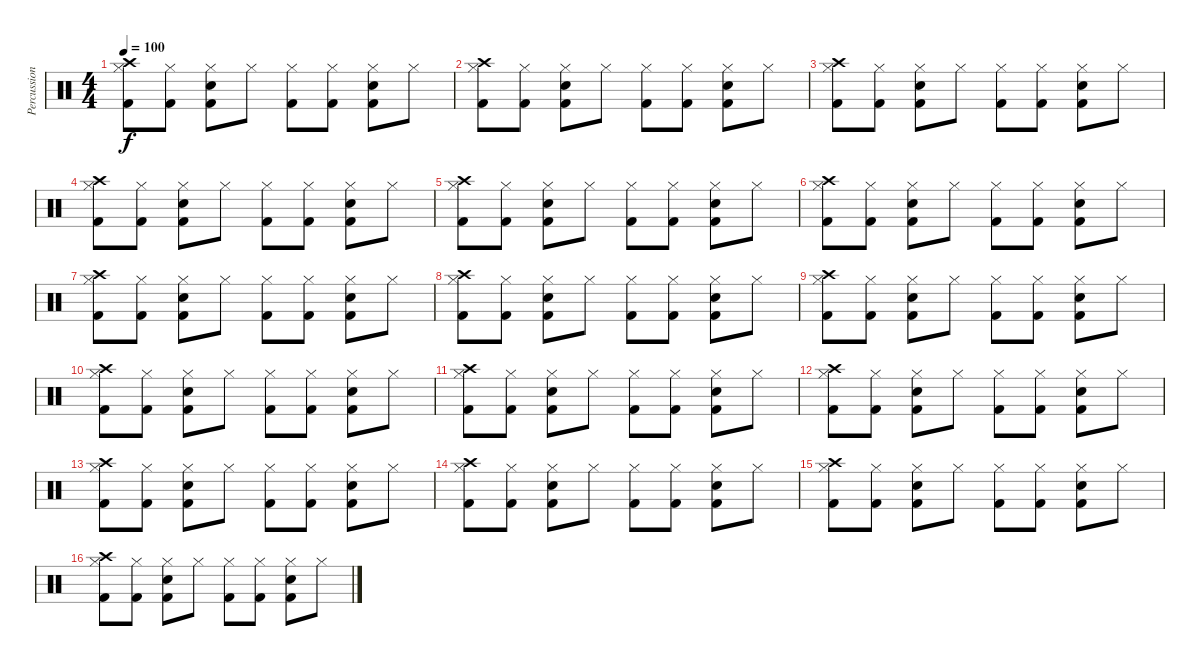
\track ("Percussion" "Percussion") {instrument percussion}
\staff {score}
\articulation defaults
\ts (4 4)
\tempo 100
\clef neutral
\ks c
("Kick (hit) 2" "Hi-Hat (closed)" "Crash high (hit)").8{dy f} ("Kick (hit) 2" "Hi-Hat (closed)").8 ("Kick (hit) 2" "Snare (hit) 2" "Hi-Hat (closed)").8 "Hi-Hat (closed)".8 ("Kick (hit) 2" "Hi-Hat (closed)").8 ("Kick (hit) 2" "Hi-Hat (closed)").8 ("Kick (hit) 2" "Snare (hit) 2" "Hi-Hat (closed)").8 "Hi-Hat (closed)".8 |
("Kick (hit) 2" "Hi-Hat (closed)" "Crash high (hit)").8 ("Kick (hit) 2" "Hi-Hat (closed)").8 ("Kick (hit) 2" "Snare (hit) 2" "Hi-Hat (closed)").8 "Hi-Hat (closed)".8 ("Kick (hit) 2" "Hi-Hat (closed)").8 ("Kick (hit) 2" "Hi-Hat (closed)").8 ("Kick (hit) 2" "Snare (hit) 2" "Hi-Hat (closed)").8 "Hi-Hat (closed)".8 |
("Kick (hit) 2" "Hi-Hat (closed)" "Crash high (hit)").8 ("Kick (hit) 2" "Hi-Hat (closed)").8 ("Kick (hit) 2" "Snare (hit) 2" "Hi-Hat (closed)").8 "Hi-Hat (closed)".8 ("Kick (hit) 2" "Hi-Hat (closed)").8 ("Kick (hit) 2" "Hi-Hat (closed)").8 ("Kick (hit) 2" "Snare (hit) 2" "Hi-Hat (closed)").8 "Hi-Hat (closed)".8 |
("Kick (hit) 2" "Hi-Hat (closed)" "Crash high (hit)").8 ("Kick (hit) 2" "Hi-Hat (closed)").8 ("Kick (hit) 2" "Snare (hit) 2" "Hi-Hat (closed)").8 "Hi-Hat (closed)".8 ("Kick (hit) 2" "Hi-Hat (closed)").8 ("Kick (hit) 2" "Hi-Hat (closed)").8 ("Kick (hit) 2" "Snare (hit) 2" "Hi-Hat (closed)").8 "Hi-Hat (closed)".8 |
("Kick (hit) 2" "Hi-Hat (closed)" "Crash high (hit)").8 ("Kick (hit) 2" "Hi-Hat (closed)").8 ("Kick (hit) 2" "Snare (hit) 2" "Hi-Hat (closed)").8 "Hi-Hat (closed)".8 ("Kick (hit) 2" "Hi-Hat (closed)").8 ("Kick (hit) 2" "Hi-Hat (closed)").8 ("Kick (hit) 2" "Snare (hit) 2" "Hi-Hat (closed)").8 "Hi-Hat (closed)".8 |
("Kick (hit) 2" "Hi-Hat (closed)" "Crash high (hit)").8 ("Kick (hit) 2" "Hi-Hat (closed)").8 ("Kick (hit) 2" "Snare (hit) 2" "Hi-Hat (closed)").8 "Hi-Hat (closed)".8 ("Kick (hit) 2" "Hi-Hat (closed)").8 ("Kick (hit) 2" "Hi-Hat (closed)").8 ("Kick (hit) 2" "Snare (hit) 2" "Hi-Hat (closed)").8 "Hi-Hat (closed)".8 |
("Kick (hit) 2" "Hi-Hat (closed)" "Crash high (hit)").8 ("Kick (hit) 2" "Hi-Hat (closed)").8 ("Kick (hit) 2" "Snare (hit) 2" "Hi-Hat (closed)").8 "Hi-Hat (closed)".8 ("Kick (hit) 2" "Hi-Hat (closed)").8 ("Kick (hit) 2" "Hi-Hat (closed)").8 ("Kick (hit) 2" "Snare (hit) 2" "Hi-Hat (closed)").8 "Hi-Hat (closed)".8 |
("Kick (hit) 2" "Hi-Hat (closed)" "Crash high (hit)").8 ("Kick (hit) 2" "Hi-Hat (closed)").8 ("Kick (hit) 2" "Snare (hit) 2" "Hi-Hat (closed)").8 "Hi-Hat (closed)".8 ("Kick (hit) 2" "Hi-Hat (closed)").8 ("Kick (hit) 2" "Hi-Hat (closed)").8 ("Kick (hit) 2" "Snare (hit) 2" "Hi-Hat (closed)").8 "Hi-Hat (closed)".8 |
("Kick (hit) 2" "Hi-Hat (closed)" "Crash high (hit)").8 ("Kick (hit) 2" "Hi-Hat (closed)").8 ("Kick (hit) 2" "Snare (hit) 2" "Hi-Hat (closed)").8 "Hi-Hat (closed)".8 ("Kick (hit) 2" "Hi-Hat (closed)").8 ("Kick (hit) 2" "Hi-Hat (closed)").8 ("Kick (hit) 2" "Snare (hit) 2" "Hi-Hat (closed)").8 "Hi-Hat (closed)".8 |
("Kick (hit) 2" "Hi-Hat (closed)" "Crash high (hit)").8 ("Kick (hit) 2" "Hi-Hat (closed)").8 ("Kick (hit) 2" "Snare (hit) 2" "Hi-Hat (closed)").8 "Hi-Hat (closed)".8 ("Kick (hit) 2" "Hi-Hat (closed)").8 ("Kick (hit) 2" "Hi-Hat (closed)").8 ("Kick (hit) 2" "Snare (hit) 2" "Hi-Hat (closed)").8 "Hi-Hat (closed)".8 |
("Kick (hit) 2" "Hi-Hat (closed)" "Crash high (hit)").8 ("Kick (hit) 2" "Hi-Hat (closed)").8 ("Kick (hit) 2" "Snare (hit) 2" "Hi-Hat (closed)").8 "Hi-Hat (closed)".8 ("Kick (hit) 2" "Hi-Hat (closed)").8 ("Kick (hit) 2" "Hi-Hat (closed)").8 ("Kick (hit) 2" "Snare (hit) 2" "Hi-Hat (closed)").8 "Hi-Hat (closed)".8 |
("Kick (hit) 2" "Hi-Hat (closed)" "Crash high (hit)").8 ("Kick (hit) 2" "Hi-Hat (closed)").8 ("Kick (hit) 2" "Snare (hit) 2" "Hi-Hat (closed)").8 "Hi-Hat (closed)".8 ("Kick (hit) 2" "Hi-Hat (closed)").8 ("Kick (hit) 2" "Hi-Hat (closed)").8 ("Kick (hit) 2" "Snare (hit) 2" "Hi-Hat (closed)").8 "Hi-Hat (closed)".8 |
("Kick (hit) 2" "Hi-Hat (closed)" "Crash high (hit)").8 ("Kick (hit) 2" "Hi-Hat (closed)").8 ("Kick (hit) 2" "Snare (hit) 2" "Hi-Hat (closed)").8 "Hi-Hat (closed)".8 ("Kick (hit) 2" "Hi-Hat (closed)").8 ("Kick (hit) 2" "Hi-Hat (closed)").8 ("Kick (hit) 2" "Snare (hit) 2" "Hi-Hat (closed)").8 "Hi-Hat (closed)".8 |
("Kick (hit) 2" "Hi-Hat (closed)" "Crash high (hit)").8 ("Kick (hit) 2" "Hi-Hat (closed)").8 ("Kick (hit) 2" "Snare (hit) 2" "Hi-Hat (closed)").8 "Hi-Hat (closed)".8 ("Kick (hit) 2" "Hi-Hat (closed)").8 ("Kick (hit) 2" "Hi-Hat (closed)").8 ("Kick (hit) 2" "Snare (hit) 2" "Hi-Hat (closed)").8 "Hi-Hat (closed)".8 |
("Kick (hit) 2" "Hi-Hat (closed)" "Crash high (hit)").8 ("Kick (hit) 2" "Hi-Hat (closed)").8 ("Kick (hit) 2" "Snare (hit) 2" "Hi-Hat (closed)").8 "Hi-Hat (closed)".8 ("Kick (hit) 2" "Hi-Hat (closed)").8 ("Kick (hit) 2" "Hi-Hat (closed)").8 ("Kick (hit) 2" "Snare (hit) 2" "Hi-Hat (closed)").8 "Hi-Hat (closed)".8 |
("Kick (hit) 2" "Hi-Hat (closed)" "Crash high (hit)").8 ("Kick (hit) 2" "Hi-Hat (closed)").8 ("Kick (hit) 2" "Snare (hit) 2" "Hi-Hat (closed)").8 "Hi-Hat (closed)".8 ("Kick (hit) 2" "Hi-Hat (closed)").8 ("Kick (hit) 2" "Hi-Hat (closed)").8 ("Kick (hit) 2" "Snare (hit) 2" "Hi-Hat (closed)").8 "Hi-Hat (closed)".8
